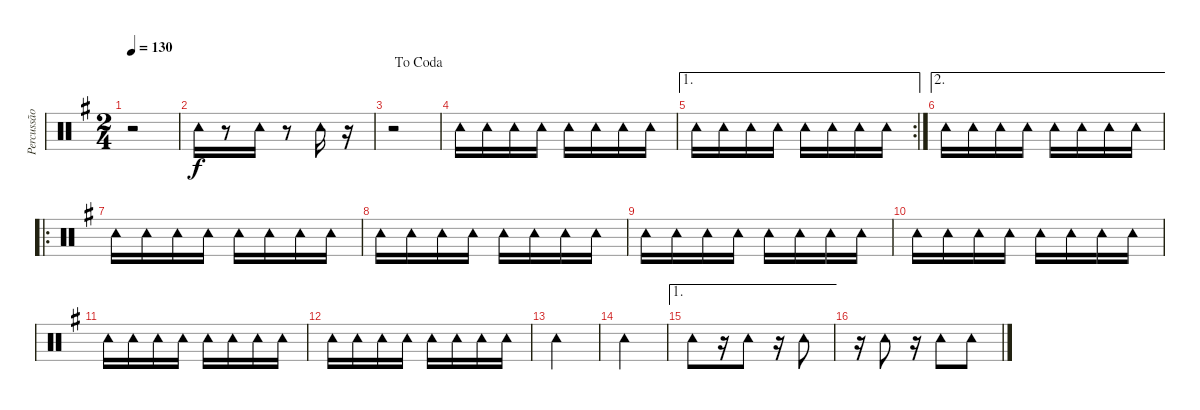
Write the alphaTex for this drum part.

\track ("Percussão" "Percussão") {instrument percussion}
\staff {score}
\articulation defaults
\ts (2 4)
\tempo 130
\clef neutral
\ks g
r.2{dy f} |
"Tambourine (hit)".16 r.8 "Tambourine (hit)".16 r.8 "Tambourine (hit)".16 r.16 |
\jump dacoda
r.2 |
"Tambourine (hit)".16 "Tambourine (hit)".16 "Tambourine (hit)".16 "Tambourine (hit)".16 "Tambourine (hit)".16 "Tambourine (hit)".16 "Tambourine (hit)".16 "Tambourine (hit)".16 |
\ae 1
\rc 2 "Tambourine (hit)".16 "Tambourine (hit)".16 "Tambourine (hit)".16 "Tambourine (hit)".16 "Tambourine (hit)".16 "Tambourine (hit)".16 "Tambourine (hit)".16 "Tambourine (hit)".16
|
\ae 2 "Tambourine (hit)".16 "Tambourine (hit)".16 "Tambourine (hit)".16 "Tambourine (hit)".16 "Tambourine (hit)".16 "Tambourine (hit)".16 "Tambourine (hit)".16 "Tambourine (hit)".16
|
\ro "Tambourine (hit)".16 "Tambourine (hit)".16 "Tambourine (hit)".16 "Tambourine (hit)".16 "Tambourine (hit)".16 "Tambourine (hit)".16 "Tambourine (hit)".16 "Tambourine (hit)".16
|
"Tambourine (hit)".16 "Tambourine (hit)".16 "Tambourine (hit)".16 "Tambourine (hit)".16 "Tambourine (hit)".16 "Tambourine (hit)".16 "Tambourine (hit)".16 "Tambourine (hit)".16 |
"Tambourine (hit)".16 "Tambourine (hit)".16 "Tambourine (hit)".16 "Tambourine (hit)".16 "Tambourine (hit)".16 "Tambourine (hit)".16 "Tambourine (hit)".16 "Tambourine (hit)".16 |
"Tambourine (hit)".16 "Tambourine (hit)".16 "Tambourine (hit)".16 "Tambourine (hit)".16 "Tambourine (hit)".16 "Tambourine (hit)".16 "Tambourine (hit)".16 "Tambourine (hit)".16 |
"Tambourine (hit)".16 "Tambourine (hit)".16 "Tambourine (hit)".16 "Tambourine (hit)".16 "Tambourine (hit)".16 "Tambourine (hit)".16 "Tambourine (hit)".16 "Tambourine (hit)".16 |
"Tambourine (hit)".16 "Tambourine (hit)".16 "Tambourine (hit)".16 "Tambourine (hit)".16 "Tambourine (hit)".16 "Tambourine (hit)".16 "Tambourine (hit)".16 "Tambourine (hit)".16 |
"Tambourine (hit)".2 |
"Tambourine (hit)".2 |
\ae 1 "Tambourine (hit)".8
r.16 "Tambourine (hit)".8 r.16 "Tambourine (hit)".8 |
r.16 "Tambourine (hit)".8 r.16 "Tambourine (hit)".8 "Tambourine (hit)".8
